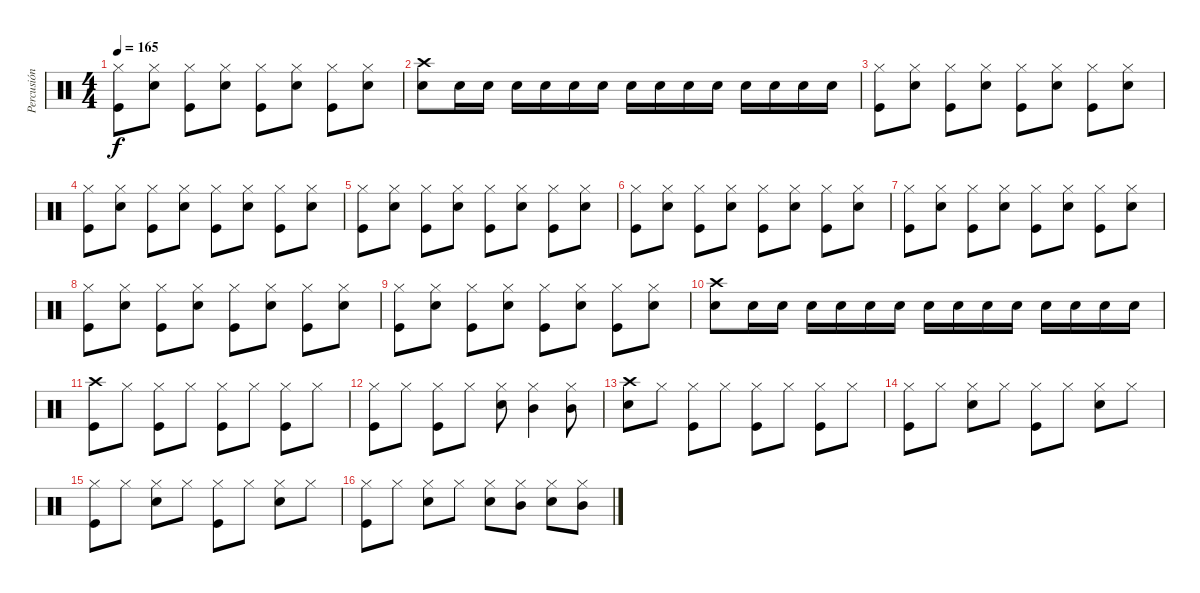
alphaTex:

\track ("Percusión" "Percusión") {instrument percussion}
\staff {score}
\articulation defaults
\ts (4 4)
\tempo 165
\clef neutral
\ks c
("Hi-Hat (closed)" "Kick (hit)").8{dy f} ("Hi-Hat (closed)" "Snare (hit) 2").8 ("Hi-Hat (closed)" "Kick (hit)").8 ("Hi-Hat (closed)" "Snare (hit) 2").8 ("Hi-Hat (closed)" "Kick (hit)").8 ("Hi-Hat (closed)" "Snare (hit) 2").8 ("Hi-Hat (closed)" "Kick (hit)").8 ("Hi-Hat (closed)" "Snare (hit) 2").8 |
("Crash high (hit)" "Snare (hit) 2").8 "Snare (hit) 2".16 "Snare (hit) 2".16 "Snare (hit) 2".16 "Snare (hit) 2".16 "Snare (hit) 2".16 "Snare (hit) 2".16 "Snare (hit) 2".16 "Snare (hit) 2".16 "Snare (hit) 2".16 "Snare (hit) 2".16 "Snare (hit) 2".16 "Snare (hit) 2".16 "Snare (hit) 2".16 "Snare (hit) 2".16 |
("Hi-Hat (closed)" "Kick (hit)").8 ("Hi-Hat (closed)" "Snare (hit) 2").8 ("Hi-Hat (closed)" "Kick (hit)").8 ("Hi-Hat (closed)" "Snare (hit) 2").8 ("Hi-Hat (closed)" "Kick (hit)").8 ("Hi-Hat (closed)" "Snare (hit) 2").8 ("Hi-Hat (closed)" "Kick (hit)").8 ("Hi-Hat (closed)" "Snare (hit) 2").8 |
("Hi-Hat (closed)" "Kick (hit)").8 ("Hi-Hat (closed)" "Snare (hit) 2").8 ("Hi-Hat (closed)" "Kick (hit)").8 ("Hi-Hat (closed)" "Snare (hit) 2").8 ("Hi-Hat (closed)" "Kick (hit)").8 ("Hi-Hat (closed)" "Snare (hit) 2").8 ("Hi-Hat (closed)" "Kick (hit)").8 ("Hi-Hat (closed)" "Snare (hit) 2").8 |
("Hi-Hat (closed)" "Kick (hit)").8 ("Hi-Hat (closed)" "Snare (hit) 2").8 ("Hi-Hat (closed)" "Kick (hit)").8 ("Hi-Hat (closed)" "Snare (hit) 2").8 ("Hi-Hat (closed)" "Kick (hit)").8 ("Hi-Hat (closed)" "Snare (hit) 2").8 ("Hi-Hat (closed)" "Kick (hit)").8 ("Hi-Hat (closed)" "Snare (hit) 2").8 |
("Hi-Hat (closed)" "Kick (hit)").8 ("Hi-Hat (closed)" "Snare (hit) 2").8 ("Hi-Hat (closed)" "Kick (hit)").8 ("Hi-Hat (closed)" "Snare (hit) 2").8 ("Hi-Hat (closed)" "Kick (hit)").8 ("Hi-Hat (closed)" "Snare (hit) 2").8 ("Hi-Hat (closed)" "Kick (hit)").8 ("Hi-Hat (closed)" "Snare (hit) 2").8 |
("Hi-Hat (closed)" "Kick (hit)").8 ("Hi-Hat (closed)" "Snare (hit) 2").8 ("Hi-Hat (closed)" "Kick (hit)").8 ("Hi-Hat (closed)" "Snare (hit) 2").8 ("Hi-Hat (closed)" "Kick (hit)").8 ("Hi-Hat (closed)" "Snare (hit) 2").8 ("Hi-Hat (closed)" "Kick (hit)").8 ("Hi-Hat (closed)" "Snare (hit) 2").8 |
("Hi-Hat (closed)" "Kick (hit)").8 ("Hi-Hat (closed)" "Snare (hit) 2").8 ("Hi-Hat (closed)" "Kick (hit)").8 ("Hi-Hat (closed)" "Snare (hit) 2").8 ("Hi-Hat (closed)" "Kick (hit)").8 ("Hi-Hat (closed)" "Snare (hit) 2").8 ("Hi-Hat (closed)" "Kick (hit)").8 ("Hi-Hat (closed)" "Snare (hit) 2").8 |
("Hi-Hat (closed)" "Kick (hit)").8 ("Hi-Hat (closed)" "Snare (hit) 2").8 ("Hi-Hat (closed)" "Kick (hit)").8 ("Hi-Hat (closed)" "Snare (hit) 2").8 ("Hi-Hat (closed)" "Kick (hit)").8 ("Hi-Hat (closed)" "Snare (hit) 2").8 ("Hi-Hat (closed)" "Kick (hit)").8 ("Hi-Hat (closed)" "Snare (hit) 2").8 |
("Crash high (hit)" "Snare (hit) 2").8 "Snare (hit) 2".16 "Snare (hit) 2".16 "Snare (hit) 2".16 "Snare (hit) 2".16 "Snare (hit) 2".16 "Snare (hit) 2".16 "Snare (hit) 2".16 "Snare (hit) 2".16 "Snare (hit) 2".16 "Snare (hit) 2".16 "Snare (hit) 2".16 "Snare (hit) 2".16 "Snare (hit) 2".16 "Snare (hit) 2".16 |
("Crash high (hit)" "Kick (hit)").8 "Hi-Hat (closed)".8 ("Kick (hit)" "Hi-Hat (closed)").8 "Hi-Hat (closed)".8 ("Kick (hit)" "Hi-Hat (closed)").8 "Hi-Hat (closed)".8 ("Kick (hit)" "Hi-Hat (closed)").8 "Hi-Hat (closed)".8 |
("Kick (hit)" "Hi-Hat (closed)").8 "Hi-Hat (closed)".8 ("Kick (hit)" "Hi-Hat (closed)").8 "Hi-Hat (closed)".8 ("Snare (hit) 2" "Hi-Hat (closed)").8 ("Mid Tom (hit)" "Hi-Hat (closed)").4 ("Mid Tom (hit)" "Hi-Hat (closed)").8 |
("Crash high (hit)" "Snare (hit) 2").8 "Hi-Hat (closed)".8 ("Kick (hit)" "Hi-Hat (closed)").8 "Hi-Hat (closed)".8 ("Kick (hit)" "Hi-Hat (closed)").8 "Hi-Hat (closed)".8 ("Kick (hit)" "Hi-Hat (closed)").8 "Hi-Hat (closed)".8 |
("Kick (hit)" "Hi-Hat (closed)").8 "Hi-Hat (closed)".8 ("Snare (hit) 2" "Hi-Hat (closed)").8 "Hi-Hat (closed)".8 ("Kick (hit)" "Hi-Hat (closed)").8 "Hi-Hat (closed)".8 ("Snare (hit) 2" "Hi-Hat (closed)").8 "Hi-Hat (closed)".8 |
("Kick (hit)" "Hi-Hat (closed)").8 "Hi-Hat (closed)".8 ("Snare (hit) 2" "Hi-Hat (closed)").8 "Hi-Hat (closed)".8 ("Kick (hit)" "Hi-Hat (closed)").8 "Hi-Hat (closed)".8 ("Snare (hit) 2" "Hi-Hat (closed)").8 "Hi-Hat (closed)".8 |
("Kick (hit)" "Hi-Hat (closed)").8 "Hi-Hat (closed)".8 ("Snare (hit) 2" "Hi-Hat (closed)").8 "Hi-Hat (closed)".8 ("Snare (hit) 2" "Hi-Hat (closed)").8 ("Mid Tom (hit)" "Hi-Hat (closed)").8 ("Snare (hit) 2" "Hi-Hat (closed)").8 ("Mid Tom (hit)" "Hi-Hat (closed)").8
